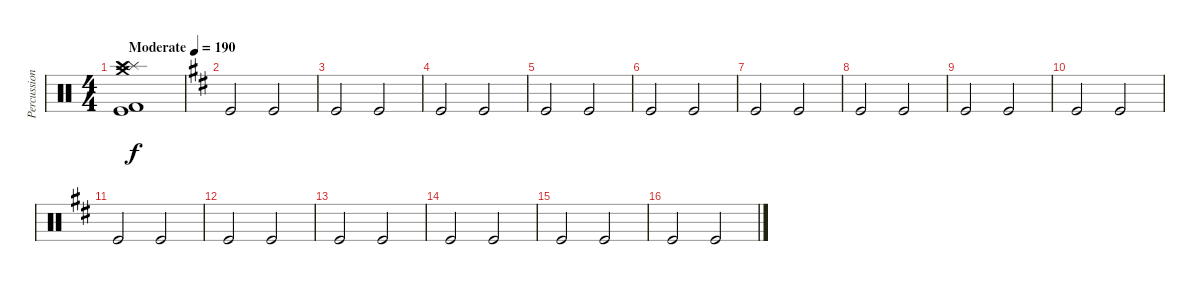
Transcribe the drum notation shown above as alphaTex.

\track ("Percussion" "Percussion") {instrument percussion}
\staff {score}
\articulation defaults
\ts (4 4)
\tempo (190 "Moderate")
\clef neutral
\ks c
("Kick (hit)" "Kick (hit) 2" "Crash medium (hit)" "Splash (hit)" "Crash high (hit)").1{dy f} |
\ks d "Kick (hit)".2 "Kick (hit)".2
|
"Kick (hit)".2 "Kick (hit)".2 |
"Kick (hit)".2 "Kick (hit)".2 |
"Kick (hit)".2 "Kick (hit)".2 |
"Kick (hit)".2 "Kick (hit)".2 |
"Kick (hit)".2 "Kick (hit)".2 |
"Kick (hit)".2 "Kick (hit)".2 |
"Kick (hit)".2 "Kick (hit)".2 |
"Kick (hit)".2 "Kick (hit)".2 |
"Kick (hit)".2 "Kick (hit)".2 |
"Kick (hit)".2 "Kick (hit)".2 |
"Kick (hit)".2 "Kick (hit)".2 |
"Kick (hit)".2 "Kick (hit)".2 |
"Kick (hit)".2 "Kick (hit)".2 |
"Kick (hit)".2 "Kick (hit)".2
